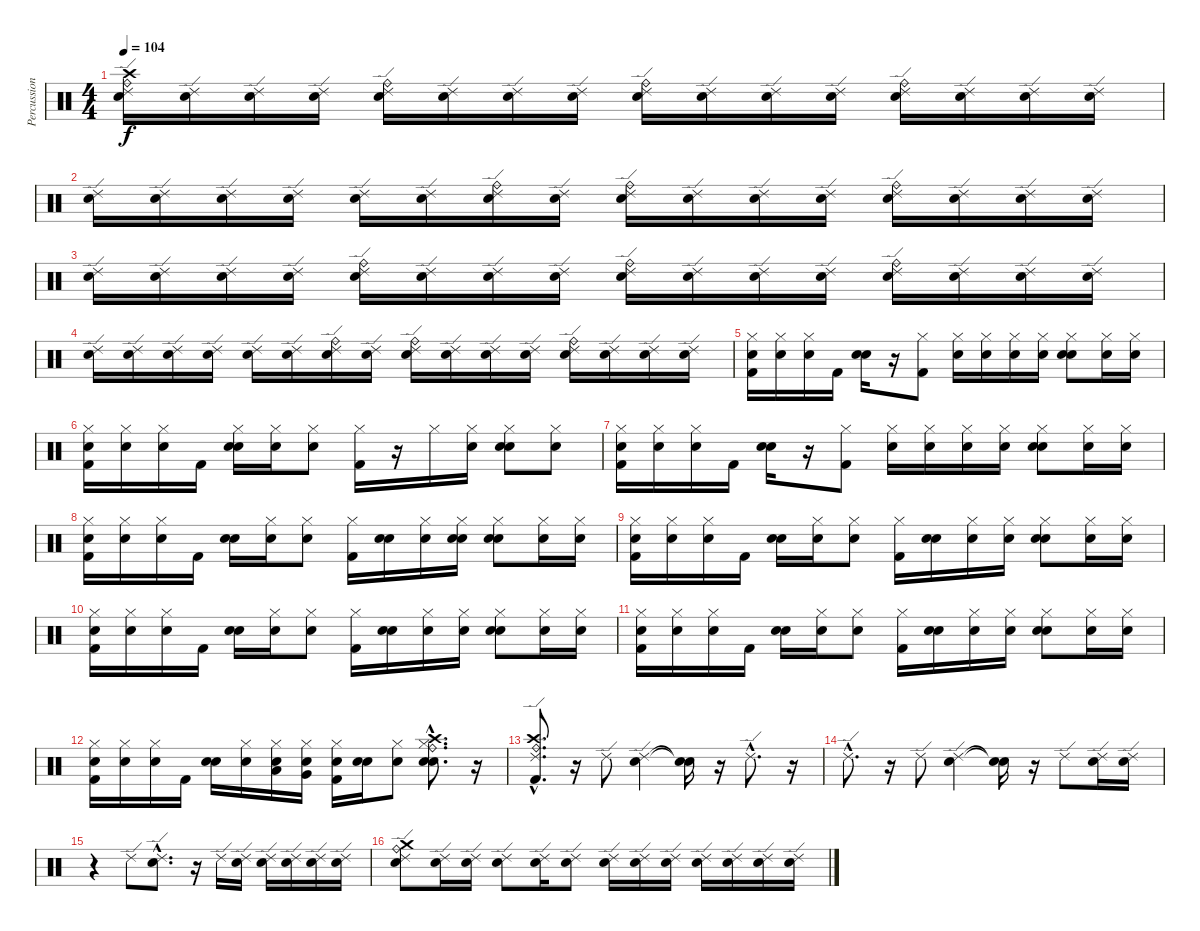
\track ("Percussion" "Percussion") {instrument percussion}
\staff {score}
\articulation defaults
\ts (4 4)
\tempo 104
\clef neutral
\ks c
("Snare (hit)" "Ride (edge) 2" "Crash high (hit)" "Ride (bell)").16{dy f} ("Snare (hit)" "Ride (edge) 2").16 ("Snare (hit)" "Ride (edge) 2").16 ("Snare (hit)" "Ride (edge) 2").16 ("Snare (hit)" "Ride (edge) 2" "Ride (bell)").16 ("Snare (hit)" "Ride (edge) 2").16 ("Snare (hit)" "Ride (edge) 2").16 ("Snare (hit)" "Ride (edge) 2").16 ("Snare (hit)" "Ride (bell)" "Ride (edge) 2").16 ("Snare (hit)" "Ride (edge) 2").16 ("Snare (hit)" "Ride (edge) 2").16 ("Snare (hit)" "Ride (edge) 2").16 ("Snare (hit)" "Ride (edge) 2" "Ride (bell)").16 ("Snare (hit)" "Ride (edge) 2").16 ("Snare (hit)" "Ride (edge) 2").16 ("Snare (hit)" "Ride (edge) 2").16 |
("Snare (hit)" "Ride (edge) 2").16 ("Snare (hit)" "Ride (edge) 2").16 ("Snare (hit)" "Ride (edge) 2").16 ("Snare (hit)" "Ride (edge) 2").16 ("Snare (hit)" "Ride (edge) 2").16 ("Snare (hit)" "Ride (edge) 2").16 ("Snare (hit)" "Ride (edge) 2" "Ride (bell)").16 ("Snare (hit)" "Ride (edge) 2").16 ("Snare (hit)" "Ride (edge) 2" "Ride (bell)").16 ("Snare (hit)" "Ride (edge) 2").16 ("Snare (hit)" "Ride (edge) 2").16 ("Snare (hit)" "Ride (edge) 2").16 ("Snare (hit)" "Ride (edge) 2" "Ride (bell)").16 ("Snare (hit)" "Ride (edge) 2").16 ("Snare (hit)" "Ride (edge) 2").16 ("Snare (hit)" "Ride (edge) 2").16 |
("Snare (hit)" "Ride (edge) 2").16 ("Snare (hit)" "Ride (edge) 2").16 ("Snare (hit)" "Ride (edge) 2").16 ("Snare (hit)" "Ride (edge) 2").16 ("Snare (hit)" "Ride (bell)" "Ride (edge) 2").16 ("Snare (hit)" "Ride (edge) 2").16 ("Snare (hit)" "Ride (edge) 2").16 ("Snare (hit)" "Ride (edge) 2").16 ("Snare (hit)" "Ride (bell)" "Ride (edge) 2").16 ("Snare (hit)" "Ride (edge) 2").16 ("Snare (hit)" "Ride (edge) 2").16 ("Snare (hit)" "Ride (edge) 2").16 ("Snare (hit)" "Ride (bell)" "Ride (edge) 2").16 ("Snare (hit)" "Ride (edge) 2").16 ("Snare (hit)" "Ride (edge) 2").16 ("Snare (hit)" "Ride (edge) 2").16 |
("Snare (hit)" "Ride (edge) 2").16 ("Snare (hit)" "Ride (edge) 2").16 ("Snare (hit)" "Ride (edge) 2").16 ("Snare (hit)" "Ride (edge) 2").16 ("Snare (hit)" "Ride (edge) 2").16 ("Snare (hit)" "Ride (edge) 2").16 ("Snare (hit)" "Ride (edge) 2" "Ride (bell)").16 ("Snare (hit)" "Ride (edge) 2").16 ("Snare (hit)" "Ride (edge) 2" "Ride (bell)").16 ("Snare (hit)" "Ride (edge) 2").16 ("Snare (hit)" "Ride (edge) 2").16 ("Snare (hit)" "Ride (edge) 2").16 ("Snare (hit)" "Ride (bell)" "Ride (edge) 2").16 ("Snare (hit)" "Ride (edge) 2").16 ("Snare (hit)" "Ride (edge) 2").16 ("Snare (hit)" "Ride (edge) 2").16 |
("Snare (hit)" "Kick (hit) 2" "Hi-Hat (closed)").16 ("Snare (hit)" "Hi-Hat (closed)").16 ("Snare (hit)" "Hi-Hat (closed)").16 "Kick (hit) 2".16 ("Snare (hit)" "Electric Snare (hit)").16 r.16 ("Hi-Hat (closed)" "Kick (hit) 2").8 ("Snare (hit)" "Hi-Hat (closed)").16 ("Snare (hit)" "Hi-Hat (closed)").16 ("Snare (hit)" "Hi-Hat (closed)").16 ("Snare (hit)" "Hi-Hat (closed)").16 ("Snare (hit)" "Hi-Hat (closed)" "Electric Snare (hit)").8 ("Snare (hit)" "Hi-Hat (closed)").16 ("Snare (hit)" "Hi-Hat (closed)").16 |
("Snare (hit)" "Hi-Hat (closed)" "Kick (hit) 2").16 ("Snare (hit)" "Hi-Hat (closed)").16 ("Snare (hit)" "Hi-Hat (closed)").16 "Kick (hit) 2".16 ("Snare (hit)" "Hi-Hat (closed)" "Electric Snare (hit)").16 ("Snare (hit)" "Hi-Hat (closed)").16 ("Snare (hit)" "Hi-Hat (closed)").8 ("Kick (hit) 2" "Hi-Hat (closed)").16 r.16 "Hi-Hat (closed)".16 ("Snare (hit)" "Hi-Hat (closed)").16 ("Snare (hit)" "Electric Snare (hit)" "Hi-Hat (closed)").8 ("Snare (hit)" "Hi-Hat (closed)").8 |
("Snare (hit)" "Hi-Hat (closed)" "Kick (hit) 2").16 ("Snare (hit)" "Hi-Hat (closed)").16 ("Snare (hit)" "Hi-Hat (closed)").16 "Kick (hit) 2".16 ("Snare (hit)" "Electric Snare (hit)").16 r.16 ("Kick (hit) 2" "Hi-Hat (closed)").8 ("Snare (hit)" "Hi-Hat (closed)").16 ("Snare (hit)" "Hi-Hat (closed)").16 ("Snare (hit)" "Hi-Hat (closed)").16 ("Snare (hit)" "Hi-Hat (closed)").16 ("Snare (hit)" "Electric Snare (hit)" "Hi-Hat (closed)").8 ("Snare (hit)" "Hi-Hat (closed)").16 ("Snare (hit)" "Hi-Hat (closed)").16 |
("Snare (hit)" "Kick (hit) 2" "Hi-Hat (closed)").16 ("Snare (hit)" "Hi-Hat (closed)").16 ("Snare (hit)" "Hi-Hat (closed)").16 "Kick (hit) 2".16 ("Snare (hit)" "Electric Snare (hit)").16 ("Snare (hit)" "Hi-Hat (closed)").16 ("Snare (hit)" "Hi-Hat (closed)").8 ("Hi-Hat (closed)" "Kick (hit) 2").16 ("Snare (hit)" "Electric Snare (hit)").16 ("Snare (hit)" "Hi-Hat (closed)").16 ("Snare (hit)" "Electric Snare (hit)" "Hi-Hat (closed)").16 ("Snare (hit)" "Electric Snare (hit)" "Hi-Hat (closed)").8 ("Snare (hit)" "Hi-Hat (closed)").16 ("Snare (hit)" "Hi-Hat (closed)").16 |
("Snare (hit)" "Hi-Hat (closed)" "Kick (hit) 2").16 ("Snare (hit)" "Hi-Hat (closed)").16 ("Snare (hit)" "Hi-Hat (closed)").16 "Kick (hit) 2".16 ("Snare (hit)" "Electric Snare (hit)").16 ("Snare (hit)" "Hi-Hat (closed)").16 ("Snare (hit)" "Hi-Hat (closed)").8 ("Kick (hit) 2" "Hi-Hat (closed)").16 ("Snare (hit)" "Electric Snare (hit)").16 ("Snare (hit)" "Hi-Hat (closed)").16 ("Snare (hit)" "Hi-Hat (closed)").16 ("Snare (hit)" "Hi-Hat (closed)" "Electric Snare (hit)").8 ("Snare (hit)" "Hi-Hat (closed)").16 ("Snare (hit)" "Hi-Hat (closed)").16 |
("Snare (hit)" "Kick (hit) 2" "Hi-Hat (closed)").16 ("Snare (hit)" "Hi-Hat (closed)").16 ("Snare (hit)" "Hi-Hat (closed)").16 "Kick (hit) 2".16 ("Snare (hit)" "Electric Snare (hit)").16 ("Snare (hit)" "Hi-Hat (closed)").16 ("Snare (hit)" "Hi-Hat (closed)").8 ("Hi-Hat (closed)" "Kick (hit) 2").16 ("Snare (hit)" "Electric Snare (hit)").16 ("Snare (hit)" "Hi-Hat (closed)").16 ("Snare (hit)" "Hi-Hat (closed)").16 ("Snare (hit)" "Electric Snare (hit)" "Hi-Hat (closed)").8 ("Snare (hit)" "Hi-Hat (closed)").16 ("Snare (hit)" "Hi-Hat (closed)").16 |
("Snare (hit)" "Kick (hit) 2" "Hi-Hat (closed)").16 ("Snare (hit)" "Hi-Hat (closed)").16 ("Snare (hit)" "Hi-Hat (closed)").16 "Kick (hit) 2".16 ("Snare (hit)" "Electric Snare (hit)").16 ("Snare (hit)" "Hi-Hat (closed)").16 ("Snare (hit)" "Hi-Hat (closed)").8 ("Hi-Hat (closed)" "Kick (hit) 2").16 ("Snare (hit)" "Electric Snare (hit)").16 ("Snare (hit)" "Hi-Hat (closed)").16 ("Snare (hit)" "Hi-Hat (closed)").16 ("Snare (hit)" "Electric Snare (hit)" "Hi-Hat (closed)").8 ("Snare (hit)" "Hi-Hat (closed)").16 ("Snare (hit)" "Hi-Hat (closed)").16 |
("Snare (hit)" "Kick (hit) 2" "Hi-Hat (closed)").16 ("Snare (hit)" "Hi-Hat (closed)").16 ("Snare (hit)" "Hi-Hat (closed)").16 "Kick (hit) 2".16 ("Snare (hit)" "Electric Snare (hit)").16 ("Snare (hit)" "Hi-Hat (closed)").16 ("Snare (hit)" "Low Tom (hit)" "Hi-Hat (closed)").16 ("Snare (hit)" "Very Low Tom (hit)" "Hi-Hat (closed)").16 ("Snare (hit)" "Hi-Hat (closed)" "Kick (hit) 2").16 ("Snare (hit)" "Electric Snare (hit)").16 ("Snare (hit)" "Hi-Hat (closed)").8 ("Snare (hit)"{hac} "Crash high (hit)"{hac} "Ride (bell)"{hac} "Electric Snare (hit)"{hac} "Hi-Hat (closed)"{hac}).8{d} r.16 |
("Ride (edge) 2"{hac} "Kick (hit) 2"{hac} "Ride (bell)"{hac} "Crash high (hit)"{hac}).8{d} r.16 "Ride (edge) 2".8 ("Snare (hit)" "Ride (edge) 2").4 ("Snare (hit)"{t} "Snare (hit)"{t}).16 r.16 "Ride (edge) 2"{hac}.8{d} r.16 |
"Ride (edge) 2"{hac}.8{d} r.16 "Ride (edge) 2".8 ("Snare (hit)" "Ride (edge) 2").4 ("Snare (hit)"{t} "Snare (hit)"{t}).16 r.16 "Ride (edge) 2".8 ("Snare (hit)" "Ride (edge) 2").16 ("Snare (hit)" "Ride (edge) 2").16 |
r.4 "Ride (edge) 2".8 ("Snare (hit)"{hac} "Ride (edge) 2"{hac}).8{d} r.16 "Ride (edge) 2".16 ("Snare (hit)" "Ride (edge) 2").16 ("Snare (hit)" "Ride (edge) 2").16 ("Snare (hit)" "Ride (edge) 2").16 ("Snare (hit)" "Ride (edge) 2").16 ("Snare (hit)" "Ride (edge) 2").16 |
("Snare (hit)" "Ride (bell)" "Crash medium (hit)" "Ride (edge) 2").8 ("Snare (hit)" "Ride (edge) 2").16 ("Snare (hit)" "Ride (edge) 2").16 ("Snare (hit)" "Ride (edge) 2").8 ("Snare (hit)" "Ride (edge) 2").16 ("Snare (hit)" "Ride (edge) 2").8 ("Snare (hit)" "Ride (edge) 2").16 ("Snare (hit)" "Ride (edge) 2").16 ("Snare (hit)" "Ride (edge) 2").16 ("Snare (hit)" "Ride (edge) 2").16 ("Snare (hit)" "Ride (edge) 2").16 ("Snare (hit)" "Ride (edge) 2").16 ("Snare (hit)" "Ride (edge) 2").16
